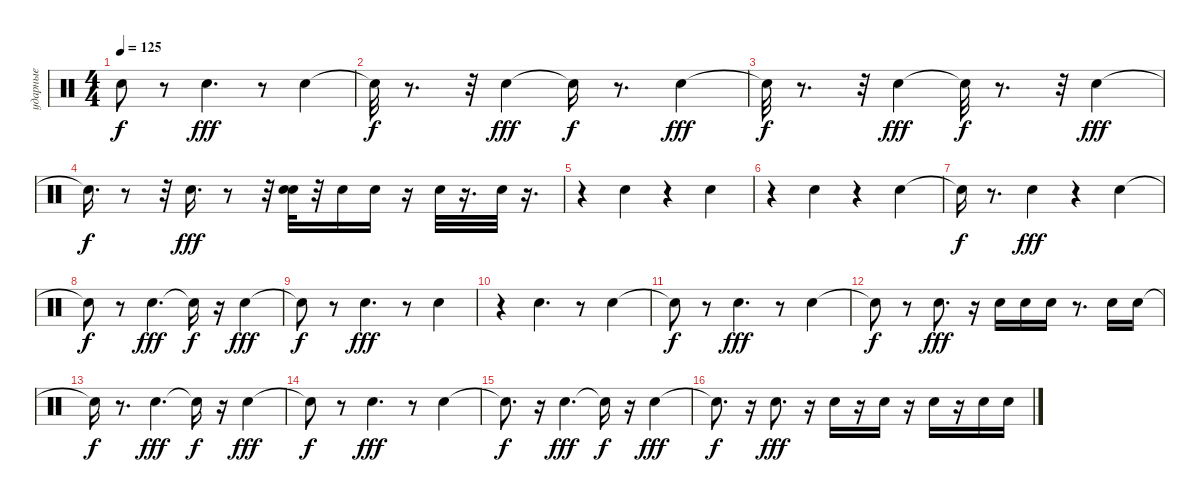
\track ("ударные" "ударные") {instrument percussion}
\staff {score}
\articulation defaults
\ts (4 4)
\tempo 125
\clef neutral
\ks c "Snare (hit)"{t}.8{dy f}
r.8 "Snare (hit) 2".4{d dy fff} r.8 "Snare (hit) 2".4 |
"Snare (hit)"{t}.32{dy f} r.8{d} r.32 "Snare (hit) 2".4{dy fff} "Snare (hit)"{t}.16{dy f} r.8{d} "Snare (hit) 2".4{dy fff} |
"Snare (hit)"{t}.32{dy f} r.8{d} r.32 "Snare (hit) 2".4{dy fff} "Snare (hit)"{t}.32{dy f} r.8{d} r.32 "Snare (hit) 2".4{dy fff} |
"Snare (hit)"{t}.16{d dy f} r.8 r.32 "Snare (hit) 2".16{d dy fff} r.8 r.32 ("Snare (hit) 2" "Snare (hit) 2").32 r.32 "Snare (hit) 2".16 "Snare (hit) 2".16 r.16 "Snare (hit) 2".32 r.16{d} "Snare (hit) 2".32 r.16{d} |
r.4 "Snare (hit) 2".4 r.4 "Snare (hit) 2".4 |
r.4 "Snare (hit) 2".4 r.4 "Snare (hit) 2".4 |
"Snare (hit)"{t}.16{dy f} r.8{d} "Snare (hit) 2".4{dy fff} r.4 "Snare (hit) 2".4 |
"Snare (hit)"{t}.8{dy f} r.8 "Snare (hit) 2".4{d dy fff} "Snare (hit)"{t}.16{dy f} r.16 "Snare (hit) 2".4{dy fff} |
"Snare (hit)"{t}.8{dy f} r.8 "Snare (hit) 2".4{d dy fff} r.8 "Snare (hit) 2".4 |
r.4 "Snare (hit) 2".4{d} r.8 "Snare (hit) 2".4 |
"Snare (hit)"{t}.8{dy f} r.8 "Snare (hit) 2".4{d dy fff} r.8 "Snare (hit) 2".4 |
"Snare (hit)"{t}.8{dy f} r.8 "Snare (hit) 2".8{d dy fff} r.16 "Snare (hit) 2".16 "Snare (hit) 2".16 "Snare (hit) 2".16 r.8{d} "Snare (hit) 2".16 "Snare (hit) 2".16 |
"Snare (hit)"{t}.16{dy f} r.8{d} "Snare (hit) 2".4{d dy fff} "Snare (hit)"{t}.16{dy f} r.16 "Snare (hit) 2".4{dy fff} |
"Snare (hit)"{t}.8{dy f} r.8 "Snare (hit) 2".4{d dy fff} r.8 "Snare (hit) 2".4 |
"Snare (hit)"{t}.8{d dy f} r.16 "Snare (hit) 2".4{d dy fff} "Snare (hit)"{t}.16{dy f} r.16 "Snare (hit) 2".4{dy fff} |
"Snare (hit)"{t}.8{d dy f} r.16 "Snare (hit) 2".8{d dy fff} r.16 "Snare (hit) 2".16 r.16 "Snare (hit) 2".16 r.16 "Snare (hit) 2".16 r.16 "Snare (hit) 2".16 "Snare (hit) 2".16
